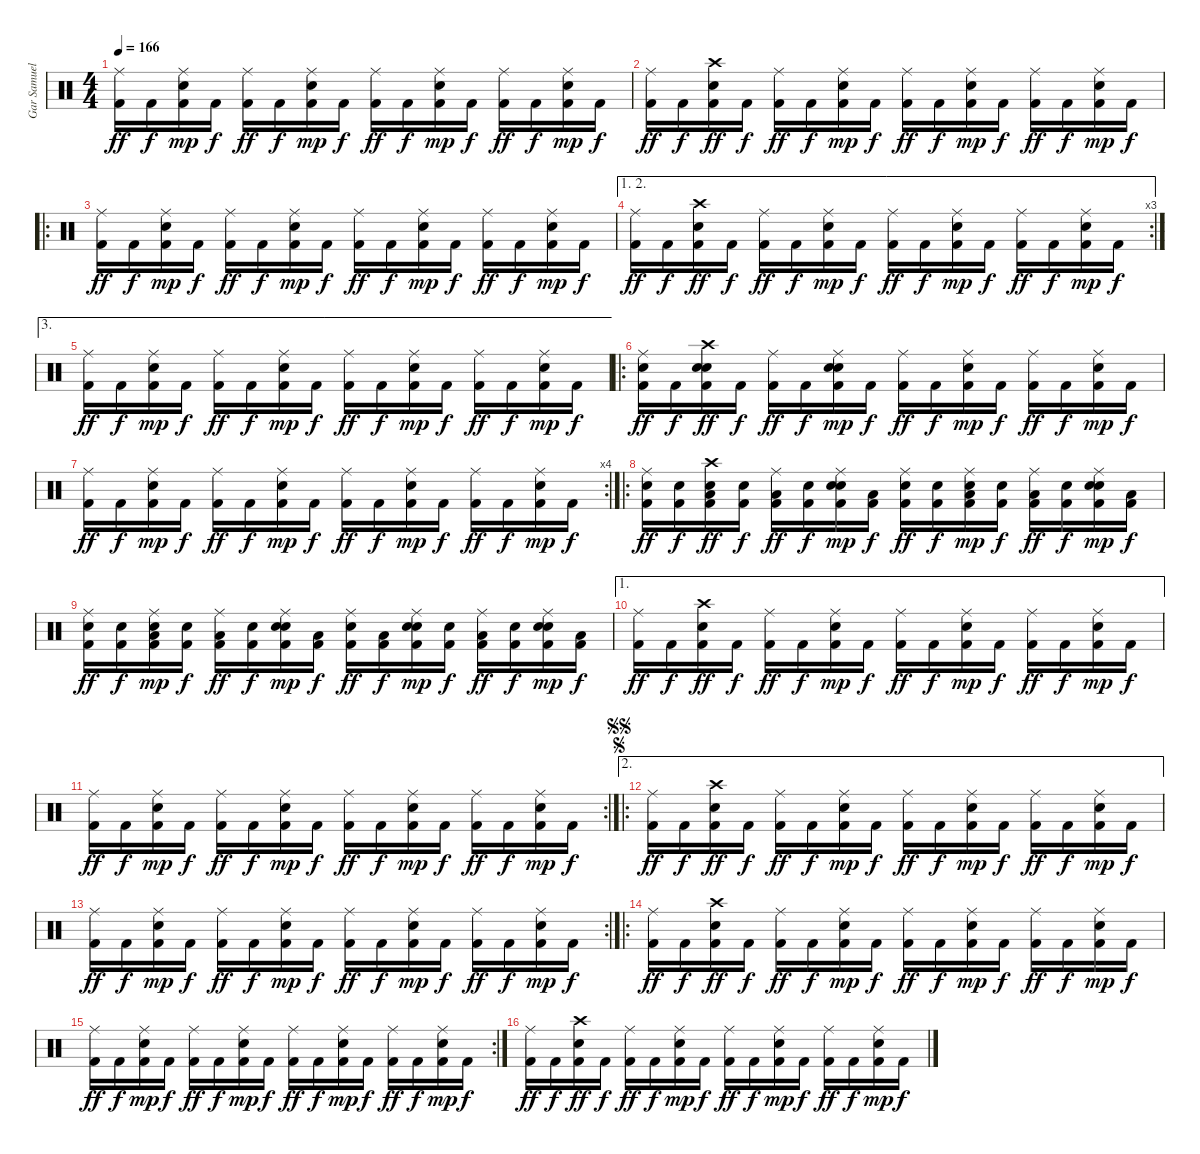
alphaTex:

\track ("Gar Samuelson" "Gar Samuel") {instrument percussion}
\staff {score}
\articulation defaults
\ts (4 4)
\tempo 166
\clef neutral
\ks c
("Ride (middle)" "Kick (hit) 2").16{dy ff} "Kick (hit) 2".16{dy f} ("Kick (hit) 2" "Snare (hit) 2" "Ride (middle)").16{dy mp} "Kick (hit) 2".16{dy f} ("Ride (middle)" "Kick (hit) 2").16{dy ff} "Kick (hit) 2".16{dy f} ("Kick (hit) 2" "Snare (hit) 2" "Ride (middle)").16{dy mp} "Kick (hit) 2".16{dy f} ("Ride (middle)" "Kick (hit) 2").16{dy ff} "Kick (hit) 2".16{dy f} ("Kick (hit) 2" "Snare (hit) 2" "Ride (middle)").16{dy mp} "Kick (hit) 2".16{dy f} ("Ride (middle)" "Kick (hit) 2").16{dy ff} "Kick (hit) 2".16{dy f} ("Kick (hit) 2" "Snare (hit) 2" "Ride (middle)").16{dy mp} "Kick (hit) 2".16{dy f} |
("Ride (middle)" "Kick (hit) 2").16{dy ff} "Kick (hit) 2".16{dy f} ("Snare (hit) 2" "Crash high (hit)" "Kick (hit) 2").16{dy ff} "Kick (hit) 2".16{dy f} ("Ride (middle)" "Kick (hit) 2").16{dy ff} "Kick (hit) 2".16{dy f} ("Kick (hit) 2" "Snare (hit) 2" "Ride (middle)").16{dy mp} "Kick (hit) 2".16{dy f} ("Ride (middle)" "Kick (hit) 2").16{dy ff} "Kick (hit) 2".16{dy f} ("Kick (hit) 2" "Snare (hit) 2" "Ride (middle)").16{dy mp} "Kick (hit) 2".16{dy f} ("Ride (middle)" "Kick (hit) 2").16{dy ff} "Kick (hit) 2".16{dy f} ("Kick (hit) 2" "Snare (hit) 2" "Ride (middle)").16{dy mp} "Kick (hit) 2".16{dy f} |
\ro
("Ride (middle)" "Kick (hit) 2").16{dy ff} "Kick (hit) 2".16{dy f} ("Kick (hit) 2" "Snare (hit) 2" "Ride (middle)").16{dy mp} "Kick (hit) 2".16{dy f} ("Ride (middle)" "Kick (hit) 2").16{dy ff} "Kick (hit) 2".16{dy f} ("Kick (hit) 2" "Snare (hit) 2" "Ride (middle)").16{dy mp} "Kick (hit) 2".16{dy f} ("Ride (middle)" "Kick (hit) 2").16{dy ff} "Kick (hit) 2".16{dy f} ("Kick (hit) 2" "Snare (hit) 2" "Ride (middle)").16{dy mp} "Kick (hit) 2".16{dy f} ("Ride (middle)" "Kick (hit) 2").16{dy ff} "Kick (hit) 2".16{dy f} ("Kick (hit) 2" "Snare (hit) 2" "Ride (middle)").16{dy mp} "Kick (hit) 2".16{dy f} |
\ae (1 2)
\rc 3
("Ride (middle)" "Kick (hit) 2").16{dy ff} "Kick (hit) 2".16{dy f} ("Snare (hit) 2" "Crash high (hit)" "Kick (hit) 2").16{dy ff} "Kick (hit) 2".16{dy f} ("Ride (middle)" "Kick (hit) 2").16{dy ff} "Kick (hit) 2".16{dy f} ("Kick (hit) 2" "Snare (hit) 2" "Ride (middle)").16{dy mp} "Kick (hit) 2".16{dy f} ("Ride (middle)" "Kick (hit) 2").16{dy ff} "Kick (hit) 2".16{dy f} ("Kick (hit) 2" "Snare (hit) 2" "Ride (middle)").16{dy mp} "Kick (hit) 2".16{dy f} ("Ride (middle)" "Kick (hit) 2").16{dy ff} "Kick (hit) 2".16{dy f} ("Kick (hit) 2" "Snare (hit) 2" "Ride (middle)").16{dy mp} "Kick (hit) 2".16{dy f} |
\ae 3
("Ride (middle)" "Kick (hit) 2").16{dy ff} "Kick (hit) 2".16{dy f} ("Kick (hit) 2" "Snare (hit) 2" "Ride (middle)").16{dy mp} "Kick (hit) 2".16{dy f} ("Ride (middle)" "Kick (hit) 2").16{dy ff} "Kick (hit) 2".16{dy f} ("Kick (hit) 2" "Snare (hit) 2" "Ride (middle)").16{dy mp} "Kick (hit) 2".16{dy f} ("Ride (middle)" "Kick (hit) 2").16{dy ff} "Kick (hit) 2".16{dy f} ("Kick (hit) 2" "Snare (hit) 2" "Ride (middle)").16{dy mp} "Kick (hit) 2".16{dy f} ("Ride (middle)" "Kick (hit) 2").16{dy ff} "Kick (hit) 2".16{dy f} ("Kick (hit) 2" "Snare (hit) 2" "Ride (middle)").16{dy mp} "Kick (hit) 2".16{dy f} |
\ro
("Ride (middle)" "Kick (hit) 2" "Electric Snare (hit)").16{dy ff} "Kick (hit) 2".16{dy f} ("Snare (hit) 2" "Crash high (hit)" "Kick (hit) 2" "Electric Snare (hit)").16{dy ff} "Kick (hit) 2".16{dy f} ("Ride (middle)" "Kick (hit) 2").16{dy ff} "Kick (hit) 2".16{dy f} ("Kick (hit) 2" "Snare (hit) 2" "Ride (middle)" "Electric Snare (hit)").16{dy mp} "Kick (hit) 2".16{dy f} ("Ride (middle)" "Kick (hit) 2").16{dy ff} "Kick (hit) 2".16{dy f} ("Kick (hit) 2" "Snare (hit) 2" "Ride (middle)").16{dy mp} "Kick (hit) 2".16{dy f} ("Ride (middle)" "Kick (hit) 2").16{dy ff} "Kick (hit) 2".16{dy f} ("Kick (hit) 2" "Snare (hit) 2" "Ride (middle)").16{dy mp} "Kick (hit) 2".16{dy f} |
\rc 4
("Ride (middle)" "Kick (hit) 2").16{dy ff} "Kick (hit) 2".16{dy f} ("Kick (hit) 2" "Snare (hit) 2" "Ride (middle)").16{dy mp} "Kick (hit) 2".16{dy f} ("Ride (middle)" "Kick (hit) 2").16{dy ff} "Kick (hit) 2".16{dy f} ("Kick (hit) 2" "Snare (hit) 2" "Ride (middle)").16{dy mp} "Kick (hit) 2".16{dy f} ("Ride (middle)" "Kick (hit) 2").16{dy ff} "Kick (hit) 2".16{dy f} ("Kick (hit) 2" "Snare (hit) 2" "Ride (middle)").16{dy mp} "Kick (hit) 2".16{dy f} ("Ride (middle)" "Kick (hit) 2").16{dy ff} "Kick (hit) 2".16{dy f} ("Kick (hit) 2" "Snare (hit) 2" "Ride (middle)").16{dy mp} "Kick (hit) 2".16{dy f} |
\ro
("Ride (middle)" "Kick (hit) 2" "Electric Snare (hit)").16{dy ff} ("Kick (hit) 2" "Electric Snare (hit)").16{dy f} ("Snare (hit) 2" "Crash high (hit)" "Kick (hit) 2" "Low Tom (hit)").16{dy ff} ("Kick (hit) 2" "Electric Snare (hit)").16{dy f} ("Ride (middle)" "Kick (hit) 2" "Low Tom (hit)").16{dy ff} ("Kick (hit) 2" "Electric Snare (hit)").16{dy f} ("Kick (hit) 2" "Snare (hit) 2" "Ride (middle)" "Electric Snare (hit)").16{dy mp} ("Kick (hit) 2" "Low Tom (hit)").16{dy f} ("Ride (middle)" "Kick (hit) 2" "Electric Snare (hit)").16{dy ff} ("Kick (hit) 2" "Electric Snare (hit)").16{dy f} ("Kick (hit) 2" "Snare (hit) 2" "Ride (middle)" "Low Tom (hit)").16{dy mp} ("Kick (hit) 2" "Electric Snare (hit)").16{dy f} ("Ride (middle)" "Kick (hit) 2" "Low Tom (hit)").16{dy ff} ("Kick (hit) 2" "Electric Snare (hit)").16{dy f} ("Kick (hit) 2" "Snare (hit) 2" "Ride (middle)" "Electric Snare (hit)").16{dy mp} ("Kick (hit) 2" "Low Tom (hit)").16{dy f} |
("Ride (middle)" "Kick (hit) 2" "Electric Snare (hit)").16{dy ff} ("Kick (hit) 2" "Electric Snare (hit)").16{dy f} ("Kick (hit) 2" "Snare (hit) 2" "Ride (middle)" "Low Tom (hit)").16{dy mp} ("Kick (hit) 2" "Electric Snare (hit)").16{dy f} ("Ride (middle)" "Kick (hit) 2" "Low Tom (hit)").16{dy ff} ("Kick (hit) 2" "Electric Snare (hit)").16{dy f} ("Kick (hit) 2" "Snare (hit) 2" "Ride (middle)" "Electric Snare (hit)").16{dy mp} ("Kick (hit) 2" "Low Tom (hit)").16{dy f} ("Ride (middle)" "Kick (hit) 2" "Electric Snare (hit)").16{dy ff} ("Kick (hit) 2" "Low Tom (hit)").16{dy f} ("Kick (hit) 2" "Snare (hit) 2" "Ride (middle)" "Electric Snare (hit)").16{dy mp} ("Kick (hit) 2" "Electric Snare (hit)").16{dy f} ("Ride (middle)" "Kick (hit) 2" "Low Tom (hit)").16{dy ff} ("Kick (hit) 2" "Electric Snare (hit)").16{dy f} ("Kick (hit) 2" "Snare (hit) 2" "Ride (middle)" "Electric Snare (hit)").16{dy mp} ("Kick (hit) 2" "Low Tom (hit)").16{dy f} |
\ae 1
("Ride (middle)" "Kick (hit) 2").16{dy ff} "Kick (hit) 2".16{dy f} ("Snare (hit) 2" "Crash high (hit)" "Kick (hit) 2").16{dy ff} "Kick (hit) 2".16{dy f} ("Ride (middle)" "Kick (hit) 2").16{dy ff} "Kick (hit) 2".16{dy f} ("Kick (hit) 2" "Snare (hit) 2" "Ride (middle)").16{dy mp} "Kick (hit) 2".16{dy f} ("Ride (middle)" "Kick (hit) 2").16{dy ff} "Kick (hit) 2".16{dy f} ("Kick (hit) 2" "Snare (hit) 2" "Ride (middle)").16{dy mp} "Kick (hit) 2".16{dy f} ("Ride (middle)" "Kick (hit) 2").16{dy ff} "Kick (hit) 2".16{dy f} ("Kick (hit) 2" "Snare (hit) 2" "Ride (middle)").16{dy mp} "Kick (hit) 2".16{dy f} |
\rc 2
("Ride (middle)" "Kick (hit) 2").16{dy ff} "Kick (hit) 2".16{dy f} ("Kick (hit) 2" "Snare (hit) 2" "Ride (middle)").16{dy mp} "Kick (hit) 2".16{dy f} ("Ride (middle)" "Kick (hit) 2").16{dy ff} "Kick (hit) 2".16{dy f} ("Kick (hit) 2" "Snare (hit) 2" "Ride (middle)").16{dy mp} "Kick (hit) 2".16{dy f} ("Ride (middle)" "Kick (hit) 2").16{dy ff} "Kick (hit) 2".16{dy f} ("Kick (hit) 2" "Snare (hit) 2" "Ride (middle)").16{dy mp} "Kick (hit) 2".16{dy f} ("Ride (middle)" "Kick (hit) 2").16{dy ff} "Kick (hit) 2".16{dy f} ("Kick (hit) 2" "Snare (hit) 2" "Ride (middle)").16{dy mp} "Kick (hit) 2".16{dy f} |
\ae 2
\ro
\jump segno
\jump segnosegno
("Ride (middle)" "Kick (hit) 2").16{dy ff} "Kick (hit) 2".16{dy f} ("Snare (hit) 2" "Crash high (hit)" "Kick (hit) 2").16{dy ff} "Kick (hit) 2".16{dy f} ("Ride (middle)" "Kick (hit) 2").16{dy ff} "Kick (hit) 2".16{dy f} ("Kick (hit) 2" "Snare (hit) 2" "Ride (middle)").16{dy mp} "Kick (hit) 2".16{dy f} ("Ride (middle)" "Kick (hit) 2").16{dy ff} "Kick (hit) 2".16{dy f} ("Kick (hit) 2" "Snare (hit) 2" "Ride (middle)").16{dy mp} "Kick (hit) 2".16{dy f} ("Ride (middle)" "Kick (hit) 2").16{dy ff} "Kick (hit) 2".16{dy f} ("Kick (hit) 2" "Snare (hit) 2" "Ride (middle)").16{dy mp} "Kick (hit) 2".16{dy f} |
\rc 2
("Ride (middle)" "Kick (hit) 2").16{dy ff} "Kick (hit) 2".16{dy f} ("Kick (hit) 2" "Snare (hit) 2" "Ride (middle)").16{dy mp} "Kick (hit) 2".16{dy f} ("Ride (middle)" "Kick (hit) 2").16{dy ff} "Kick (hit) 2".16{dy f} ("Kick (hit) 2" "Snare (hit) 2" "Ride (middle)").16{dy mp} "Kick (hit) 2".16{dy f} ("Ride (middle)" "Kick (hit) 2").16{dy ff} "Kick (hit) 2".16{dy f} ("Kick (hit) 2" "Snare (hit) 2" "Ride (middle)").16{dy mp} "Kick (hit) 2".16{dy f} ("Ride (middle)" "Kick (hit) 2").16{dy ff} "Kick (hit) 2".16{dy f} ("Kick (hit) 2" "Snare (hit) 2" "Ride (middle)").16{dy mp} "Kick (hit) 2".16{dy f} |
\ro
("Ride (middle)" "Kick (hit) 2").16{dy ff} "Kick (hit) 2".16{dy f} ("Snare (hit) 2" "Crash high (hit)" "Kick (hit) 2").16{dy ff} "Kick (hit) 2".16{dy f} ("Ride (middle)" "Kick (hit) 2").16{dy ff} "Kick (hit) 2".16{dy f} ("Kick (hit) 2" "Snare (hit) 2" "Ride (middle)").16{dy mp} "Kick (hit) 2".16{dy f} ("Ride (middle)" "Kick (hit) 2").16{dy ff} "Kick (hit) 2".16{dy f} ("Kick (hit) 2" "Snare (hit) 2" "Ride (middle)").16{dy mp} "Kick (hit) 2".16{dy f} ("Ride (middle)" "Kick (hit) 2").16{dy ff} "Kick (hit) 2".16{dy f} ("Kick (hit) 2" "Snare (hit) 2" "Ride (middle)").16{dy mp} "Kick (hit) 2".16{dy f} |
\rc 2
("Ride (middle)" "Kick (hit) 2").16{dy ff} "Kick (hit) 2".16{dy f} ("Kick (hit) 2" "Snare (hit) 2" "Ride (middle)").16{dy mp} "Kick (hit) 2".16{dy f} ("Ride (middle)" "Kick (hit) 2").16{dy ff} "Kick (hit) 2".16{dy f} ("Kick (hit) 2" "Snare (hit) 2" "Ride (middle)").16{dy mp} "Kick (hit) 2".16{dy f} ("Ride (middle)" "Kick (hit) 2").16{dy ff} "Kick (hit) 2".16{dy f} ("Kick (hit) 2" "Snare (hit) 2" "Ride (middle)").16{dy mp} "Kick (hit) 2".16{dy f} ("Ride (middle)" "Kick (hit) 2").16{dy ff} "Kick (hit) 2".16{dy f} ("Kick (hit) 2" "Snare (hit) 2" "Ride (middle)").16{dy mp} "Kick (hit) 2".16{dy f} |
("Ride (middle)" "Kick (hit) 2").16{dy ff} "Kick (hit) 2".16{dy f} ("Snare (hit) 2" "Crash high (hit)" "Kick (hit) 2").16{dy ff} "Kick (hit) 2".16{dy f} ("Ride (middle)" "Kick (hit) 2").16{dy ff} "Kick (hit) 2".16{dy f} ("Kick (hit) 2" "Snare (hit) 2" "Ride (middle)").16{dy mp} "Kick (hit) 2".16{dy f} ("Ride (middle)" "Kick (hit) 2").16{dy ff} "Kick (hit) 2".16{dy f} ("Kick (hit) 2" "Snare (hit) 2" "Ride (middle)").16{dy mp} "Kick (hit) 2".16{dy f} ("Ride (middle)" "Kick (hit) 2").16{dy ff} "Kick (hit) 2".16{dy f} ("Kick (hit) 2" "Snare (hit) 2" "Ride (middle)").16{dy mp} "Kick (hit) 2".16{dy f}
